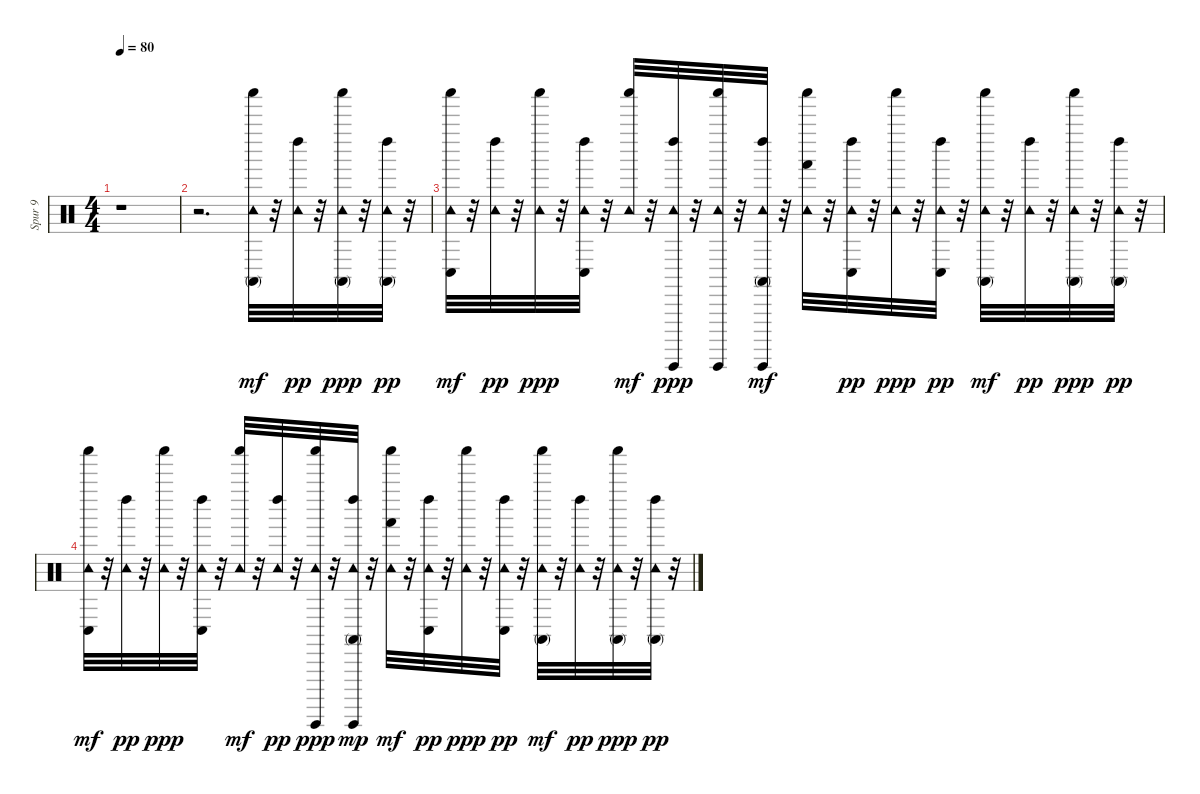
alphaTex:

\track ("Spur 9" "Spur 9") {instrument percussion}
\staff {score}
\articulation defaults
\ts (4 4)
\tempo 80
\clef neutral
\ks c
r.1{dy pp} |
r.2{d} ("Tambourine (hit)" "Conga high (mute)" "Shaker (hit)").32{dy mf} r.32 ("Tambourine (hit)" "Left Maraca (hit)").32{dy pp} r.32 ("Tambourine (hit)" "Conga high (mute)" "Shaker (hit)").32{dy ppp} r.32 ("Tambourine (hit)" "Conga high (mute)" "Left Maraca (hit)").32{dy pp} r.32 |
("Tambourine (hit)" "Conga low (hit)" "Shaker (hit)").32{dy mf} r.32 ("Tambourine (hit)" "Left Maraca (hit)").32{dy pp} r.32 ("Tambourine (hit)" "Shaker (hit)").32{dy ppp} r.32 ("Tambourine (hit)" "Conga low (hit)" "Left Maraca (hit)").32 r.32 ("Tambourine (hit)" "Shaker (hit)").32{dy mf} r.32 ("Tambourine (hit)" "Left Maraca (hit)" "Guiro (hit)").32{dy ppp} r.32 ("Tambourine (hit)" "Guiro (hit)" "Shaker (hit)").32 r.32 ("Tambourine (hit)" "Conga high (mute)" "Left Maraca (hit)" "Guiro (hit)").32{dy mf} r.32 ("Tambourine (hit)" "Hand (hit)" "Shaker (hit)").32 r.32 ("Tambourine (hit)" "Conga low (hit)" "Left Maraca (hit)").32{dy pp} r.32 ("Tambourine (hit)" "Shaker (hit)").32{dy ppp} r.32 ("Tambourine (hit)" "Conga low (hit)" "Left Maraca (hit)").32{dy pp} r.32 ("Tambourine (hit)" "Conga high (mute)" "Shaker (hit)").32{dy mf} r.32 ("Tambourine (hit)" "Left Maraca (hit)").32{dy pp} r.32 ("Tambourine (hit)" "Conga high (mute)" "Shaker (hit)").32{dy ppp} r.32 ("Tambourine (hit)" "Conga high (mute)" "Left Maraca (hit)").32{dy pp} r.32 |
("Tambourine (hit)" "Conga low (hit)" "Shaker (hit)").32{dy mf} r.32 ("Tambourine (hit)" "Left Maraca (hit)").32{dy pp} r.32 ("Tambourine (hit)" "Shaker (hit)").32{dy ppp} r.32 ("Tambourine (hit)" "Conga low (hit)" "Left Maraca (hit)").32 r.32 ("Tambourine (hit)" "Shaker (hit)").32{dy mf} r.32 ("Tambourine (hit)" "Left Maraca (hit)").32{dy pp} r.32 ("Tambourine (hit)" "Guiro (hit)" "Shaker (hit)").32{dy ppp} r.32 ("Tambourine (hit)" "Conga high (mute)" "Left Maraca (hit)" "Guiro (hit)").32{dy mp} r.32 ("Tambourine (hit)" "Hand (hit)" "Shaker (hit)").32{dy mf} r.32 ("Tambourine (hit)" "Conga low (hit)" "Left Maraca (hit)").32{dy pp} r.32 ("Tambourine (hit)" "Shaker (hit)").32{dy ppp} r.32 ("Tambourine (hit)" "Conga low (hit)" "Left Maraca (hit)").32{dy pp} r.32 ("Tambourine (hit)" "Conga high (mute)" "Shaker (hit)").32{dy mf} r.32 ("Tambourine (hit)" "Left Maraca (hit)").32{dy pp} r.32 ("Tambourine (hit)" "Conga high (mute)" "Shaker (hit)").32{dy ppp} r.32 ("Tambourine (hit)" "Conga high (mute)" "Left Maraca (hit)").32{dy pp} r.32
